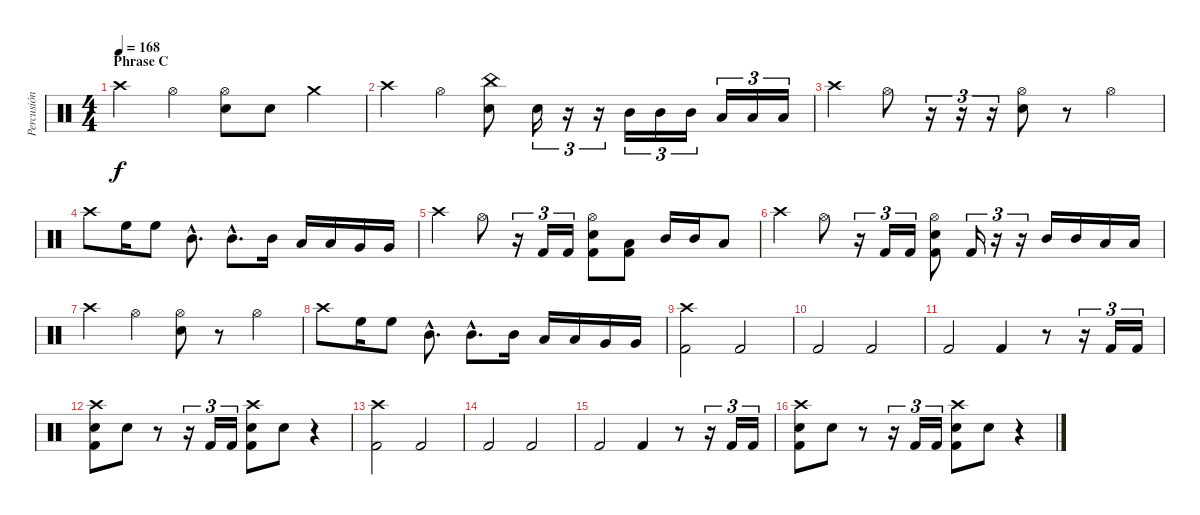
\track ("Percusión" "Percusión") {instrument percussion}
\staff {score}
\articulation defaults
\ts (4 4)
\section ("" "Phrase C")
\tempo 168
\clef neutral
\ks c "Crash high (hit)".4{dy f} "Hi-Hat (open)".4
("Hi-Hat (open)" "Electric Snare (hit)").8 "Electric Snare (hit)".8 "Crash medium (hit)".4 |
"Crash high (hit)".4 "Hi-Hat (open)".4 ("China (hit)" "Electric Snare (hit)").8 "Electric Snare (hit)".16{tu (3 2)} r.16{tu (3 2)} r.16{tu (3 2)} "Mid Tom (hit)".16{tu (3 2)} "Mid Tom (hit)".16{tu (3 2)} "Mid Tom (hit)".16{tu (3 2)} "Low Tom (hit)".16{tu (3 2)} "Low Tom (hit)".16{tu (3 2)} "Low Tom (hit)".16{tu (3 2)} |
"Crash high (hit)".4 "Hi-Hat (open)".8 r.16{tu (3 2)} r.16{tu (3 2)} r.16{tu (3 2)} ("Hi-Hat (open)" "Electric Snare (hit)").8 r.8 "Hi-Hat (open)".4 |
"Crash high (hit)".8 "High Floor Tom (hit)".16 "High Floor Tom (hit)".8 "Mid Tom (hit)"{hac}.8{d} "Mid Tom (hit)"{hac}.8{d} "Mid Tom (hit)".16 "Low Tom (hit)".16 "Low Tom (hit)".16 "Very Low Tom (hit)".16 "Very Low Tom (hit)".16 |
"Crash high (hit)".4 "Hi-Hat (open)".8 r.16{tu (3 2)} "Kick (hit) 2".16{tu (3 2)} "Kick (hit) 2".16{tu (3 2)} ("Hi-Hat (open)" "Electric Snare (hit)" "Kick (hit) 2").8 ("Low Tom (hit)" "Kick (hit) 2").8 "Mid Tom (hit)".16 "Mid Tom (hit)".16 "Low Tom (hit)".8 |
"Crash high (hit)".4 "Hi-Hat (open)".8 r.16{tu (3 2)} "Kick (hit) 2".16{tu (3 2)} "Kick (hit) 2".16{tu (3 2)} ("Hi-Hat (open)" "Electric Snare (hit)" "Kick (hit) 2").8 "Kick (hit) 2".16{tu (3 2)} r.16{tu (3 2)} r.16{tu (3 2)} "Mid Tom (hit)".16 "Mid Tom (hit)".16 "Low Tom (hit)".16 "Low Tom (hit)".16 |
"Crash high (hit)".4 "Hi-Hat (open)".4 ("Hi-Hat (open)" "Electric Snare (hit)").8 r.8 "Hi-Hat (open)".4 |
"Crash high (hit)".8 "High Floor Tom (hit)".16 "High Floor Tom (hit)".8 "Mid Tom (hit)"{hac}.8{d} "Mid Tom (hit)"{hac}.8{d} "Mid Tom (hit)".16 "Low Tom (hit)".16 "Low Tom (hit)".16 "Very Low Tom (hit)".16 "Very Low Tom (hit)".16 |
("Crash high (hit)" "Kick (hit) 2").2 "Kick (hit) 2".2 |
"Kick (hit) 2".2 "Kick (hit) 2".2 |
"Kick (hit) 2".2 "Kick (hit) 2".4 r.8 r.16{tu (3 2)} "Kick (hit) 2".16{tu (3 2)} "Kick (hit) 2".16{tu (3 2)} |
("Crash high (hit)" "Electric Snare (hit)" "Kick (hit) 2").8 "Electric Snare (hit)".8 r.8 r.16{tu (3 2)} "Kick (hit) 2".16{tu (3 2)} "Kick (hit) 2".16{tu (3 2)} ("Crash high (hit)" "Electric Snare (hit)" "Kick (hit) 2").8 "Electric Snare (hit)".8 r.4 |
("Crash high (hit)" "Kick (hit) 2").2 "Kick (hit) 2".2 |
"Kick (hit) 2".2 "Kick (hit) 2".2 |
"Kick (hit) 2".2 "Kick (hit) 2".4 r.8 r.16{tu (3 2)} "Kick (hit) 2".16{tu (3 2)} "Kick (hit) 2".16{tu (3 2)} |
("Crash high (hit)" "Electric Snare (hit)" "Kick (hit) 2").8 "Electric Snare (hit)".8 r.8 r.16{tu (3 2)} "Kick (hit) 2".16{tu (3 2)} "Kick (hit) 2".16{tu (3 2)} ("Crash high (hit)" "Electric Snare (hit)" "Kick (hit) 2").8 "Electric Snare (hit)".8 r.4
